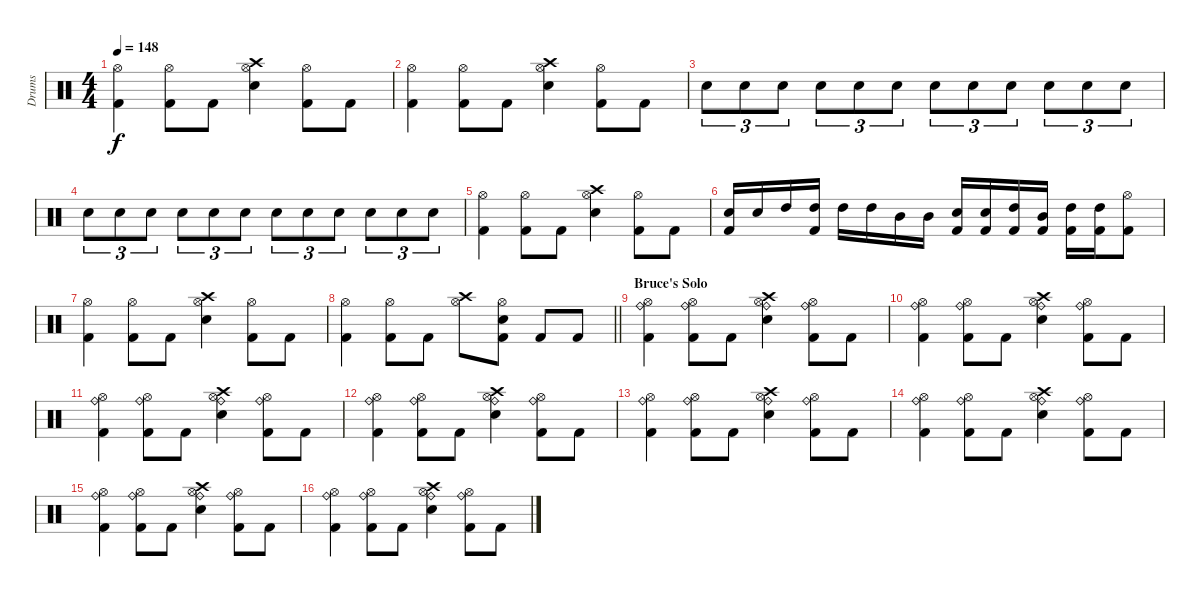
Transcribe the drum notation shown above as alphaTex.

\track ("Drums" "Drums") {instrument percussion}
\staff {score}
\articulation defaults
\ts (4 4)
\tempo 148
\clef neutral
\ks c
("Hi-Hat (open)" "Kick (hit) 2").4{dy f} ("Hi-Hat (open)" "Kick (hit) 2").8 "Kick (hit) 2".8 ("Crash high (hit)" "Hi-Hat (open)" "Snare (hit) 2").4 ("Hi-Hat (open)" "Kick (hit) 2").8 "Kick (hit) 2".8 |
("Hi-Hat (open)" "Kick (hit) 2").4 ("Hi-Hat (open)" "Kick (hit) 2").8 "Kick (hit) 2".8 ("Crash high (hit)" "Hi-Hat (open)" "Snare (hit) 2").4 ("Hi-Hat (open)" "Kick (hit) 2").8 "Kick (hit) 2".8 |
"Electric Snare (hit)".8{tu (3 2)} "Electric Snare (hit)".8{tu (3 2)} "Electric Snare (hit)".8{tu (3 2)} "Electric Snare (hit)".8{tu (3 2)} "Electric Snare (hit)".8{tu (3 2)} "Electric Snare (hit)".8{tu (3 2)} "Electric Snare (hit)".8{tu (3 2)} "Electric Snare (hit)".8{tu (3 2)} "Electric Snare (hit)".8{tu (3 2)} "Electric Snare (hit)".8{tu (3 2)} "Electric Snare (hit)".8{tu (3 2)} "Electric Snare (hit)".8{tu (3 2)} |
"Electric Snare (hit)".8{tu (3 2)} "Electric Snare (hit)".8{tu (3 2)} "Electric Snare (hit)".8{tu (3 2)} "Electric Snare (hit)".8{tu (3 2)} "Electric Snare (hit)".8{tu (3 2)} "Electric Snare (hit)".8{tu (3 2)} "Electric Snare (hit)".8{tu (3 2)} "Electric Snare (hit)".8{tu (3 2)} "Electric Snare (hit)".8{tu (3 2)} "Electric Snare (hit)".8{tu (3 2)} "Electric Snare (hit)".8{tu (3 2)} "Electric Snare (hit)".8{tu (3 2)} |
("Hi-Hat (open)" "Kick (hit) 2").4 ("Hi-Hat (open)" "Kick (hit) 2").8 "Kick (hit) 2".8 ("Crash high (hit)" "Hi-Hat (open)" "Snare (hit) 2").4 ("Hi-Hat (open)" "Kick (hit) 2").8 "Kick (hit) 2".8 |
("Snare (hit) 2" "Kick (hit) 2").16 "Snare (hit) 2".16 "High Tom (hit)".16 ("High Tom (hit)" "Kick (hit) 2").16 "High Tom (hit)".16 "High Tom (hit)".16 "Mid Tom (hit)".16 "Mid Tom (hit)".16 ("Snare (hit) 2" "Kick (hit) 2").16 ("Snare (hit) 2" "Kick (hit) 2").16 ("High Tom (hit)" "Kick (hit) 2").16 ("Mid Tom (hit)" "Kick (hit) 2").16 ("High Tom (hit)" "Kick (hit) 2").16 ("High Tom (hit)" "Kick (hit) 2").16 ("Hi-Hat (open)" "Kick (hit) 2").8 |
("Hi-Hat (open)" "Kick (hit) 2").4 ("Hi-Hat (open)" "Kick (hit) 2").8 "Kick (hit) 2".8 ("Crash high (hit)" "Hi-Hat (open)" "Snare (hit) 2").4 ("Hi-Hat (open)" "Kick (hit) 2").8 "Kick (hit) 2".8 |
\barLineRight lightlight
("Hi-Hat (open)" "Kick (hit) 2").4 ("Hi-Hat (open)" "Kick (hit) 2").8 "Kick (hit) 2".8 ("Crash high (hit)" "Hi-Hat (open)").8 ("Hi-Hat (open)" "Snare (hit) 2" "Kick (hit) 2").8 "Kick (hit) 2".8 "Kick (hit) 2".8 |
\section ("" "Bruce's Solo")
("Ride (bell)" "Hi-Hat (open)" "Kick (hit) 2").4 ("Ride (bell)" "Hi-Hat (open)" "Kick (hit) 2").8 "Kick (hit) 2".8 ("Ride (bell)" "Crash high (hit)" "Hi-Hat (open)" "Snare (hit) 2").4 ("Ride (bell)" "Hi-Hat (open)" "Kick (hit) 2").8 "Kick (hit) 2".8 |
("Ride (bell)" "Hi-Hat (open)" "Kick (hit) 2").4 ("Ride (bell)" "Hi-Hat (open)" "Kick (hit) 2").8 "Kick (hit) 2".8 ("Ride (bell)" "Crash high (hit)" "Hi-Hat (open)" "Snare (hit) 2").4 ("Ride (bell)" "Hi-Hat (open)" "Kick (hit) 2").8 "Kick (hit) 2".8 |
("Ride (bell)" "Hi-Hat (open)" "Kick (hit) 2").4 ("Ride (bell)" "Hi-Hat (open)" "Kick (hit) 2").8 "Kick (hit) 2".8 ("Ride (bell)" "Crash high (hit)" "Hi-Hat (open)" "Snare (hit) 2").4 ("Ride (bell)" "Hi-Hat (open)" "Kick (hit) 2").8 "Kick (hit) 2".8 |
("Ride (bell)" "Hi-Hat (open)" "Kick (hit) 2").4 ("Ride (bell)" "Hi-Hat (open)" "Kick (hit) 2").8 "Kick (hit) 2".8 ("Ride (bell)" "Crash high (hit)" "Hi-Hat (open)" "Snare (hit) 2").4 ("Ride (bell)" "Hi-Hat (open)" "Kick (hit) 2").8 "Kick (hit) 2".8 |
("Ride (bell)" "Hi-Hat (open)" "Kick (hit) 2").4 ("Ride (bell)" "Hi-Hat (open)" "Kick (hit) 2").8 "Kick (hit) 2".8 ("Ride (bell)" "Crash high (hit)" "Hi-Hat (open)" "Snare (hit) 2").4 ("Ride (bell)" "Hi-Hat (open)" "Kick (hit) 2").8 "Kick (hit) 2".8 |
("Ride (bell)" "Hi-Hat (open)" "Kick (hit) 2").4 ("Ride (bell)" "Hi-Hat (open)" "Kick (hit) 2").8 "Kick (hit) 2".8 ("Ride (bell)" "Crash high (hit)" "Hi-Hat (open)" "Snare (hit) 2").4 ("Ride (bell)" "Hi-Hat (open)" "Kick (hit) 2").8 "Kick (hit) 2".8 |
("Ride (bell)" "Hi-Hat (open)" "Kick (hit) 2").4 ("Ride (bell)" "Hi-Hat (open)" "Kick (hit) 2").8 "Kick (hit) 2".8 ("Ride (bell)" "Crash high (hit)" "Hi-Hat (open)" "Snare (hit) 2").4 ("Ride (bell)" "Hi-Hat (open)" "Kick (hit) 2").8 "Kick (hit) 2".8 |
("Ride (bell)" "Hi-Hat (open)" "Kick (hit) 2").4 ("Ride (bell)" "Hi-Hat (open)" "Kick (hit) 2").8 "Kick (hit) 2".8 ("Ride (bell)" "Crash high (hit)" "Hi-Hat (open)" "Snare (hit) 2").4 ("Ride (bell)" "Hi-Hat (open)" "Kick (hit) 2").8 "Kick (hit) 2".8
